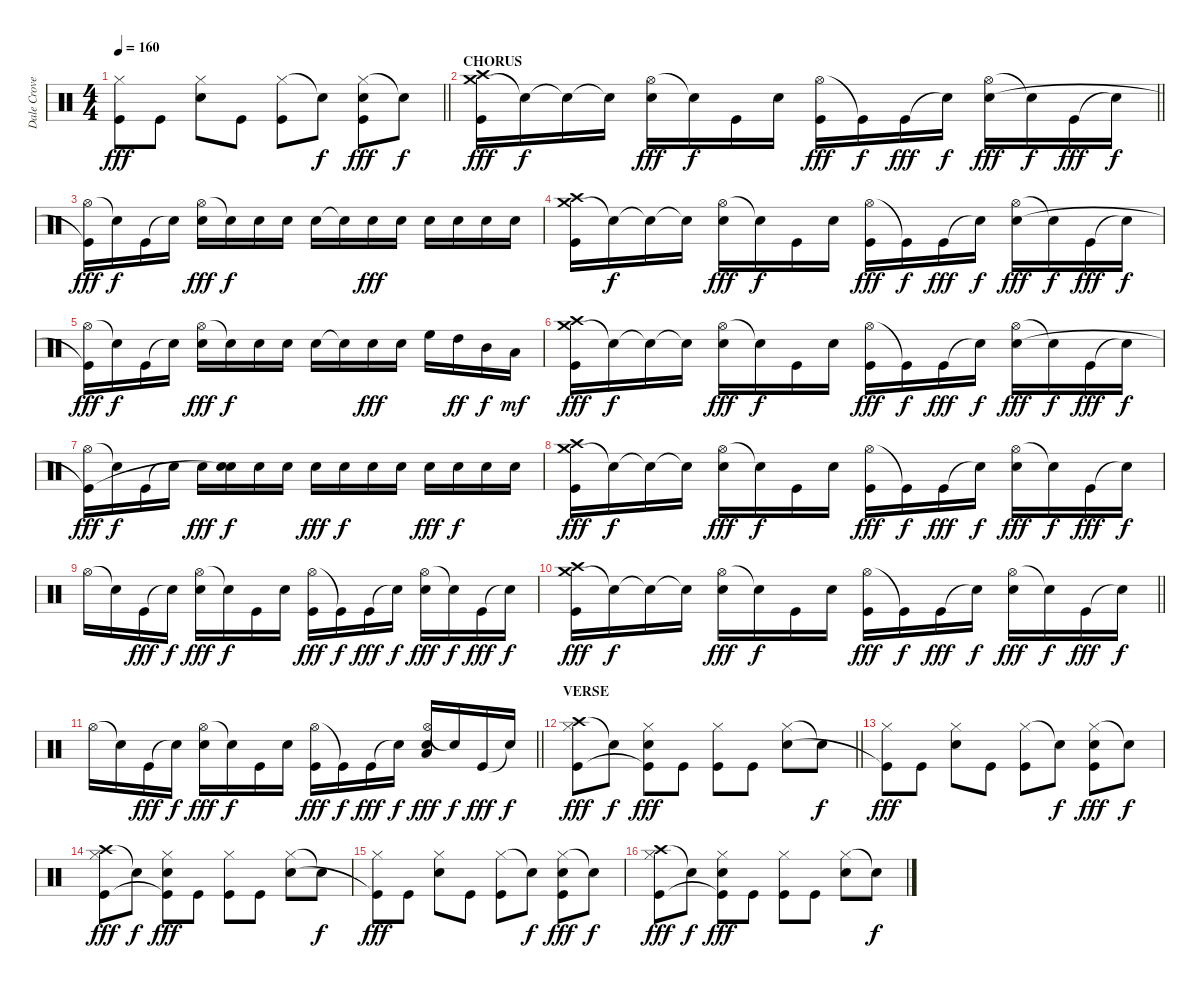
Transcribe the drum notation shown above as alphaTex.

\track ("Dale Crover" "Dale Crove") {instrument percussion}
\staff {score}
\articulation defaults
\ts (4 4)
\tempo 160
\clef neutral
\barLineRight lightlight
\ks c
("Hi-Hat (closed)" "Kick (hit)"{t}).8{dy fff} "Kick (hit)".8 ("Hi-Hat (closed)" "Snare (hit) 2").8 "Kick (hit)".8 ("Hi-Hat (closed)" "Kick (hit)").8 "Snare (hit)"{t}.8{dy f} ("Hi-Hat (closed)" "Snare (hit) 2" "Kick (hit)").8{dy fff} "Snare (hit)"{t}.8{dy f} |
\section ("" "CHORUS")
\barLineRight lightlight
("Crash medium (hit)" "Crash high (hit)" "Kick (hit)").16{dy fff} "Snare (hit)"{t}.16{dy f} "Snare (hit)"{t}.16 "Snare (hit)"{t}.16 ("Hi-Hat (open)" "Snare (hit) 2").16{dy fff} "Snare (hit)"{t}.16{dy f} "Kick (hit)".16 "Snare (hit) 2".16 ("Hi-Hat (open)" "Kick (hit)").16{dy fff} "Kick (hit)"{t}.16{dy f} "Kick (hit)".16{dy fff} "Snare (hit)"{t}.16{dy f} ("Hi-Hat (open)" "Snare (hit) 2").16{dy fff} "Snare (hit)"{t}.16{dy f} "Kick (hit)".16{dy fff} "Snare (hit)"{t}.16{dy f} |
("Hi-Hat (open)" "Kick (hit)"{t}).16{dy fff} "Snare (hit)"{t}.16{dy f} "Kick (hit)".16 "Snare (hit)"{t}.16 ("Hi-Hat (open)" "Snare (hit) 2").16{dy fff} "Snare (hit)"{t}.16{dy f} "Snare (hit) 2".16 "Snare (hit) 2".16 "Snare (hit) 2".16 "Snare (hit)"{t}.16 "Snare (hit) 2".16{dy fff} "Snare (hit) 2".16 "Snare (hit) 2".16 "Snare (hit) 2".16 "Snare (hit) 2".16 "Snare (hit) 2".16 |
("Crash medium (hit)" "Crash high (hit)" "Kick (hit)").16 "Snare (hit)"{t}.16{dy f} "Snare (hit)"{t}.16 "Snare (hit)"{t}.16 ("Hi-Hat (open)" "Snare (hit) 2").16{dy fff} "Snare (hit)"{t}.16{dy f} "Kick (hit)".16 "Snare (hit) 2".16 ("Hi-Hat (open)" "Kick (hit)").16{dy fff} "Kick (hit)"{t}.16{dy f} "Kick (hit)".16{dy fff} "Snare (hit)"{t}.16{dy f} ("Hi-Hat (open)" "Snare (hit) 2").16{dy fff} "Snare (hit)"{t}.16{dy f} "Kick (hit)".16{dy fff} "Snare (hit)"{t}.16{dy f} |
("Hi-Hat (open)" "Kick (hit)"{t}).16{dy fff} "Snare (hit)"{t}.16{dy f} "Kick (hit)".16 "Snare (hit)"{t}.16 ("Hi-Hat (open)" "Snare (hit) 2").16{dy fff} "Snare (hit)"{t}.16{dy f} "Snare (hit) 2".16 "Snare (hit) 2".16 "Snare (hit) 2".16 "Snare (hit)"{t}.16 "Snare (hit) 2".16{dy fff} "Snare (hit) 2".16 "High Floor Tom (hit)".16 "High Tom (hit)".16{dy ff} "Mid Tom (hit)".16{dy f} "Low Tom (hit)".16{dy mf} |
("Crash medium (hit)" "Crash high (hit)" "Kick (hit)").16{dy fff} "Snare (hit)"{t}.16{dy f} "Snare (hit)"{t}.16 "Snare (hit)"{t}.16 ("Hi-Hat (open)" "Snare (hit) 2").16{dy fff} "Snare (hit)"{t}.16{dy f} "Kick (hit)".16 "Snare (hit) 2".16 ("Hi-Hat (open)" "Kick (hit)").16{dy fff} "Kick (hit)"{t}.16{dy f} "Kick (hit)".16{dy fff} "Snare (hit)"{t}.16{dy f} ("Hi-Hat (open)" "Snare (hit) 2").16{dy fff} "Snare (hit)"{t}.16{dy f} "Kick (hit)".16{dy fff} "Snare (hit)"{t}.16{dy f} |
("Hi-Hat (open)" "Kick (hit)"{t}).16{dy fff} "Snare (hit)"{t}.16{dy f} "Kick (hit)".16 "Snare (hit)"{t}.16 "Snare (hit) 2".16{dy fff} ("Snare (hit) 2" "Snare (hit)"{t}).16{dy f} "Snare (hit) 2".16 "Snare (hit) 2".16 "Snare (hit) 2".16{dy fff} "Snare (hit) 2".16{dy f} "Snare (hit) 2".16 "Snare (hit) 2".16 "Snare (hit) 2".16{dy fff} "Snare (hit) 2".16{dy f} "Snare (hit) 2".16 "Snare (hit) 2".16 |
("Crash medium (hit)" "Crash high (hit)" "Kick (hit)").16{dy fff} "Snare (hit)"{t}.16{dy f} "Snare (hit)"{t}.16 "Snare (hit)"{t}.16 ("Hi-Hat (open)" "Snare (hit) 2").16{dy fff} "Snare (hit)"{t}.16{dy f} "Kick (hit)".16 "Snare (hit) 2".16 ("Hi-Hat (open)" "Kick (hit)").16{dy fff} "Kick (hit)"{t}.16{dy f} "Kick (hit)".16{dy fff} "Snare (hit)"{t}.16{dy f} ("Hi-Hat (open)" "Snare (hit) 2").16{dy fff} "Snare (hit)"{t}.16{dy f} "Kick (hit)".16{dy fff} "Snare (hit)"{t}.16{dy f} |
"Hi-Hat (open)".16 "Snare (hit)"{t}.16 "Kick (hit)".16{dy fff} "Snare (hit)"{t}.16{dy f} ("Hi-Hat (open)" "Snare (hit) 2").16{dy fff} "Snare (hit)"{t}.16{dy f} "Kick (hit)".16 "Snare (hit) 2".16 ("Hi-Hat (open)" "Kick (hit)").16{dy fff} "Kick (hit)"{t}.16{dy f} "Kick (hit)".16{dy fff} "Snare (hit)"{t}.16{dy f} ("Hi-Hat (open)" "Snare (hit) 2").16{dy fff} "Snare (hit)"{t}.16{dy f} "Kick (hit)".16{dy fff} "Snare (hit)"{t}.16{dy f} |
\barLineRight lightlight
("Crash medium (hit)" "Crash high (hit)" "Kick (hit)").16{dy fff} "Snare (hit)"{t}.16{dy f} "Snare (hit)"{t}.16 "Snare (hit)"{t}.16 ("Hi-Hat (open)" "Snare (hit) 2").16{dy fff} "Snare (hit)"{t}.16{dy f} "Kick (hit)".16 "Snare (hit) 2".16 ("Hi-Hat (open)" "Kick (hit)").16{dy fff} "Kick (hit)"{t}.16{dy f} "Kick (hit)".16{dy fff} "Snare (hit)"{t}.16{dy f} ("Hi-Hat (open)" "Snare (hit) 2").16{dy fff} "Snare (hit)"{t}.16{dy f} "Kick (hit)".16{dy fff} "Snare (hit)"{t}.16{dy f} |
\barLineRight lightlight "Hi-Hat (open)".16 "Snare (hit)"{t}.16 "Kick (hit)".16{dy fff} "Snare (hit)"{t}.16{dy f}
("Hi-Hat (open)" "Snare (hit) 2").16{dy fff} "Snare (hit)"{t}.16{dy f} "Kick (hit)".16 "Snare (hit) 2".16 ("Hi-Hat (open)" "Kick (hit)").16{dy fff} "Kick (hit)"{t}.16{dy f} "Kick (hit)".16{dy fff} "Snare (hit)"{t}.16{dy f} ("Hi-Hat (open)" "Snare (hit) 2" "Low Tom (hit)").16{dy fff} "Snare (hit)"{t}.16{dy f} "Kick (hit)".16{dy fff} "Snare (hit)"{t}.16{dy f} |
\section ("" "VERSE")
\barLineRight lightlight
("Crash high (hit)" "Hi-Hat (closed)" "Kick (hit)").8{dy fff} "Snare (hit)"{t}.8{dy f} ("Hi-Hat (closed)" "Snare (hit) 2" "Kick (hit)"{t}).8{dy fff} "Kick (hit)".8 ("Hi-Hat (closed)" "Kick (hit)").8 "Kick (hit)".8 ("Hi-Hat (closed)" "Snare (hit) 2").8 "Snare (hit)"{t}.8{dy f} |
("Hi-Hat (closed)" "Kick (hit)"{t}).8{dy fff} "Kick (hit)".8 ("Hi-Hat (closed)" "Snare (hit) 2").8 "Kick (hit)".8 ("Hi-Hat (closed)" "Kick (hit)").8 "Snare (hit)"{t}.8{dy f} ("Hi-Hat (closed)" "Snare (hit) 2" "Kick (hit)").8{dy fff} "Snare (hit)"{t}.8{dy f} |
("Crash high (hit)" "Hi-Hat (closed)" "Kick (hit)").8{dy fff} "Snare (hit)"{t}.8{dy f} ("Hi-Hat (closed)" "Snare (hit) 2" "Kick (hit)"{t}).8{dy fff} "Kick (hit)".8 ("Hi-Hat (closed)" "Kick (hit)").8 "Kick (hit)".8 ("Hi-Hat (closed)" "Snare (hit) 2").8 "Snare (hit)"{t}.8{dy f} |
("Hi-Hat (closed)" "Kick (hit)"{t}).8{dy fff} "Kick (hit)".8 ("Hi-Hat (closed)" "Snare (hit) 2").8 "Kick (hit)".8 ("Hi-Hat (closed)" "Kick (hit)").8 "Snare (hit)"{t}.8{dy f} ("Hi-Hat (closed)" "Snare (hit) 2" "Kick (hit)").8{dy fff} "Snare (hit)"{t}.8{dy f} |
("Crash high (hit)" "Hi-Hat (closed)" "Kick (hit)").8{dy fff} "Snare (hit)"{t}.8{dy f} ("Hi-Hat (closed)" "Snare (hit) 2" "Kick (hit)"{t}).8{dy fff} "Kick (hit)".8 ("Hi-Hat (closed)" "Kick (hit)").8 "Kick (hit)".8 ("Hi-Hat (closed)" "Snare (hit) 2").8 "Snare (hit)"{t}.8{dy f}
